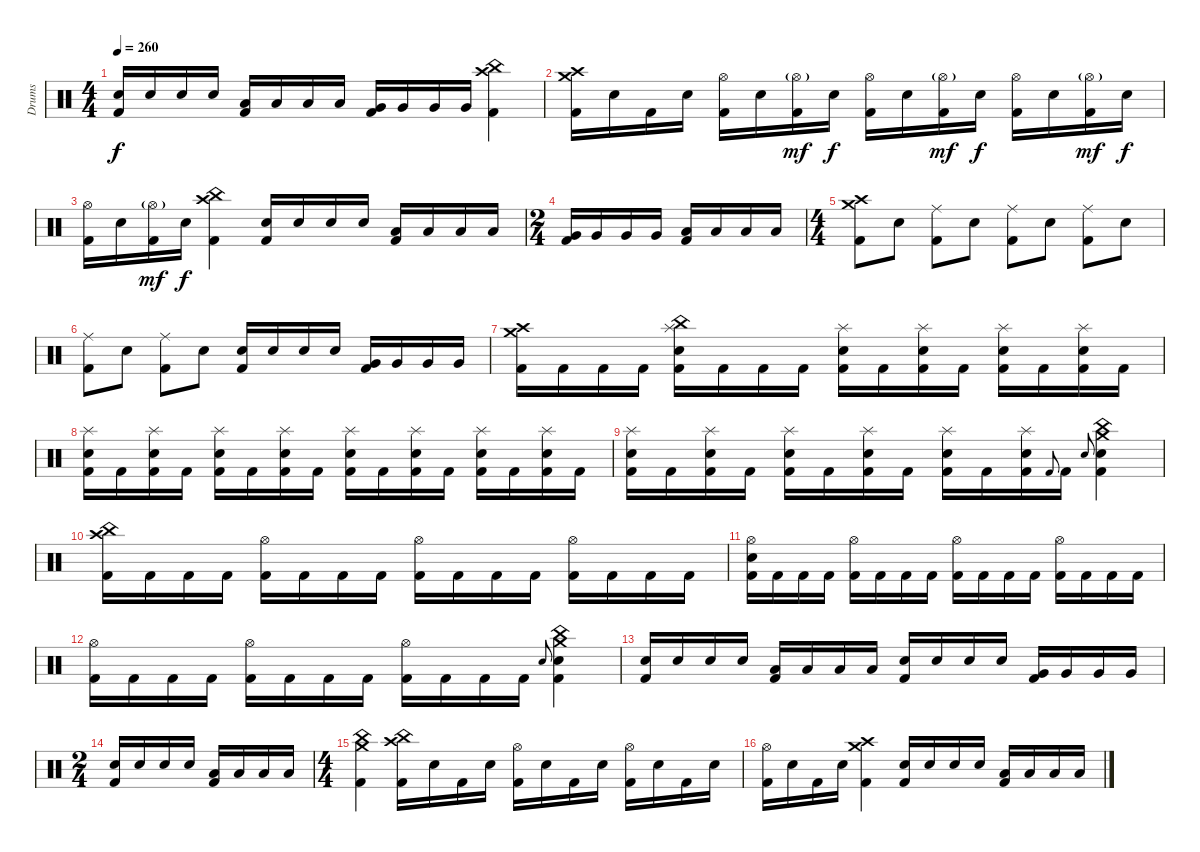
\track ("Drums" "Drums") {instrument percussion}
\staff {score}
\articulation defaults
\ts (4 4)
\tempo 260
\clef neutral
\ks c
("Electric Snare (hit)" "Kick (hit) 2").16{dy f} "Electric Snare (hit)".16 "Electric Snare (hit)".16 "Electric Snare (hit)".16 ("Low Tom (hit)" "Kick (hit) 2").16 "Low Tom (hit)".16 "Low Tom (hit)".16 "Low Tom (hit)".16 ("Very Low Tom (hit)" "Kick (hit) 2").16 "Very Low Tom (hit)".16 "Very Low Tom (hit)".16 "Very Low Tom (hit)".16 ("Crash high (hit)" "China (hit)" "Kick (hit) 2").4 |
("Crash high (hit)" "Crash medium (hit)" "Kick (hit) 2").16 "Electric Snare (hit)".16 "Kick (hit) 2".16 "Electric Snare (hit)".16 ("Hi-Hat (open)" "Kick (hit) 2").16 "Electric Snare (hit)".16 ("Hi-Hat (open)"{g} "Kick (hit) 2").16{dy mf} "Electric Snare (hit)".16{dy f} ("Hi-Hat (open)" "Kick (hit) 2").16 "Electric Snare (hit)".16 ("Hi-Hat (open)"{g} "Kick (hit) 2").16{dy mf} "Electric Snare (hit)".16{dy f} ("Hi-Hat (open)" "Kick (hit) 2").16 "Electric Snare (hit)".16 ("Hi-Hat (open)"{g} "Kick (hit) 2").16{dy mf} "Electric Snare (hit)".16{dy f} |
("Hi-Hat (open)" "Kick (hit) 2").16 "Electric Snare (hit)".16 ("Hi-Hat (open)"{g} "Kick (hit) 2").16{dy mf} "Electric Snare (hit)".16{dy f} ("Crash high (hit)" "China (hit)" "Kick (hit) 2").4 ("Electric Snare (hit)" "Kick (hit) 2").16 "Electric Snare (hit)".16 "Electric Snare (hit)".16 "Electric Snare (hit)".16 ("Low Tom (hit)" "Kick (hit) 2").16 "Low Tom (hit)".16 "Low Tom (hit)".16 "Low Tom (hit)".16 |
\ts (2 4)
("Very Low Tom (hit)" "Kick (hit) 2").16 "Very Low Tom (hit)".16 "Very Low Tom (hit)".16 "Very Low Tom (hit)".16 ("Low Floor Tom (hit)" "Kick (hit) 2").16 "Low Floor Tom (hit)".16 "Low Floor Tom (hit)".16 "Low Floor Tom (hit)".16 |
\ts (4 4)
("Crash high (hit)" "Crash medium (hit)" "Kick (hit) 2").8 "Electric Snare (hit)".8 ("Ride (middle)" "Kick (hit) 2").8 "Electric Snare (hit)".8 ("Ride (middle)" "Kick (hit) 2").8 "Electric Snare (hit)".8 ("Ride (middle)" "Kick (hit) 2").8 "Electric Snare (hit)".8 |
("Ride (middle)" "Kick (hit) 2").8 "Electric Snare (hit)".8 ("Ride (middle)" "Kick (hit) 2").8 "Electric Snare (hit)".8 ("Electric Snare (hit)" "Kick (hit) 2").16 "Electric Snare (hit)".16 "Electric Snare (hit)".16 "Electric Snare (hit)".16 ("Very Low Tom (hit)" "Kick (hit) 2").16 "Very Low Tom (hit)".16 "Very Low Tom (hit)".16 "Very Low Tom (hit)".16 |
("Crash high (hit)" "Crash medium (hit)" "Kick (hit) 2").16 "Kick (hit) 2".16 "Kick (hit) 2".16 "Kick (hit) 2".16 ("China (hit)" "Splash (hit)" "Electric Snare (hit)" "Kick (hit) 2").16 "Kick (hit) 2".16 "Kick (hit) 2".16 "Kick (hit) 2".16 ("Splash (hit)" "Electric Snare (hit)" "Kick (hit) 2").16 "Kick (hit) 2".16 ("Splash (hit)" "Electric Snare (hit)" "Kick (hit) 2").16 "Kick (hit) 2".16 ("Splash (hit)" "Electric Snare (hit)" "Kick (hit) 2").16 "Kick (hit) 2".16 ("Splash (hit)" "Electric Snare (hit)" "Kick (hit) 2").16 "Kick (hit) 2".16 |
("Splash (hit)" "Electric Snare (hit)" "Kick (hit) 2").16 "Kick (hit) 2".16 ("Splash (hit)" "Electric Snare (hit)" "Kick (hit) 2").16 "Kick (hit) 2".16 ("Splash (hit)" "Electric Snare (hit)" "Kick (hit) 2").16 "Kick (hit) 2".16 ("Splash (hit)" "Electric Snare (hit)" "Kick (hit) 2").16 "Kick (hit) 2".16 ("Splash (hit)" "Electric Snare (hit)" "Kick (hit) 2").16 "Kick (hit) 2".16 ("Splash (hit)" "Electric Snare (hit)" "Kick (hit) 2").16 "Kick (hit) 2".16 ("Splash (hit)" "Electric Snare (hit)" "Kick (hit) 2").16 "Kick (hit) 2".16 ("Splash (hit)" "Electric Snare (hit)" "Kick (hit) 2").16 "Kick (hit) 2".16 |
("Splash (hit)" "Electric Snare (hit)" "Kick (hit) 2").16 "Kick (hit) 2".16 ("Splash (hit)" "Electric Snare (hit)" "Kick (hit) 2").16 "Kick (hit) 2".16 ("Splash (hit)" "Electric Snare (hit)" "Kick (hit) 2").16 "Kick (hit) 2".16 ("Splash (hit)" "Electric Snare (hit)" "Kick (hit) 2").16 "Kick (hit) 2".16 ("Splash (hit)" "Electric Snare (hit)" "Kick (hit) 2").16 "Kick (hit) 2".16 ("Splash (hit)" "Electric Snare (hit)" "Kick (hit) 2").16 "Kick (hit) 2".8{gr onbeat} "Kick (hit) 2".16 "Electric Snare (hit)".8{gr onbeat} ("Crash medium (hit)" "China (hit)" "Electric Snare (hit)" "Kick (hit) 2").4 |
("Crash high (hit)" "China (hit)" "Kick (hit) 2").16 "Kick (hit) 2".16 "Kick (hit) 2".16 "Kick (hit) 2".16 ("Hi-Hat (open)" "Kick (hit) 2").16 "Kick (hit) 2".16 "Kick (hit) 2".16 "Kick (hit) 2".16 ("Hi-Hat (open)" "Kick (hit) 2").16 "Kick (hit) 2".16 "Kick (hit) 2".16 "Kick (hit) 2".16 ("Hi-Hat (open)" "Kick (hit) 2").16 "Kick (hit) 2".16 "Kick (hit) 2".16 "Kick (hit) 2".16 |
("Hi-Hat (open)" "Electric Snare (hit)" "Kick (hit) 2").16 "Kick (hit) 2".16 "Kick (hit) 2".16 "Kick (hit) 2".16 ("Hi-Hat (open)" "Kick (hit) 2").16 "Kick (hit) 2".16 "Kick (hit) 2".16 "Kick (hit) 2".16 ("Hi-Hat (open)" "Kick (hit) 2").16 "Kick (hit) 2".16 "Kick (hit) 2".16 "Kick (hit) 2".16 ("Hi-Hat (open)" "Kick (hit) 2").16 "Kick (hit) 2".16 "Kick (hit) 2".16 "Kick (hit) 2".16 |
("Hi-Hat (open)" "Kick (hit) 2").16 "Kick (hit) 2".16 "Kick (hit) 2".16 "Kick (hit) 2".16 ("Hi-Hat (open)" "Kick (hit) 2").16 "Kick (hit) 2".16 "Kick (hit) 2".16 "Kick (hit) 2".16 ("Hi-Hat (open)" "Kick (hit) 2").16 "Kick (hit) 2".16 "Kick (hit) 2".16 "Kick (hit) 2".16 "Electric Snare (hit)".8{gr onbeat} ("Crash medium (hit)" "China (hit)" "Electric Snare (hit)" "Kick (hit) 2").4 |
("Electric Snare (hit)" "Kick (hit) 2").16 "Electric Snare (hit)".16 "Electric Snare (hit)".16 "Electric Snare (hit)".16 ("Low Tom (hit)" "Kick (hit) 2").16 "Low Tom (hit)".16 "Low Tom (hit)".16 "Low Tom (hit)".16 ("Electric Snare (hit)" "Kick (hit) 2").16 "Electric Snare (hit)".16 "Electric Snare (hit)".16 "Electric Snare (hit)".16 ("Very Low Tom (hit)" "Kick (hit) 2").16 "Very Low Tom (hit)".16 "Very Low Tom (hit)".16 "Very Low Tom (hit)".16 |
\ts (2 4)
("Electric Snare (hit)" "Kick (hit) 2").16 "Electric Snare (hit)".16 "Electric Snare (hit)".16 "Electric Snare (hit)".16 ("Low Floor Tom (hit)" "Kick (hit) 2").16 "Low Floor Tom (hit)".16 "Low Floor Tom (hit)".16 "Low Floor Tom (hit)".16 |
\ts (4 4)
("Crash medium (hit)" "China (hit)" "Kick (hit) 2").4 ("Crash high (hit)" "China (hit)" "Kick (hit) 2").16 "Electric Snare (hit)".16 "Kick (hit) 2".16 "Electric Snare (hit)".16 ("Hi-Hat (open)" "Kick (hit) 2").16 "Electric Snare (hit)".16 "Kick (hit) 2".16 "Electric Snare (hit)".16 ("Hi-Hat (open)" "Kick (hit) 2").16 "Electric Snare (hit)".16 "Kick (hit) 2".16 "Electric Snare (hit)".16 |
("Hi-Hat (open)" "Kick (hit) 2").16 "Electric Snare (hit)".16 "Kick (hit) 2".16 "Electric Snare (hit)".16 ("Crash high (hit)" "Crash medium (hit)" "Kick (hit) 2").4 ("Electric Snare (hit)" "Kick (hit) 2").16 "Electric Snare (hit)".16 "Electric Snare (hit)".16 "Electric Snare (hit)".16 ("Low Tom (hit)" "Kick (hit) 2").16 "Low Tom (hit)".16 "Low Tom (hit)".16 "Low Tom (hit)".16
